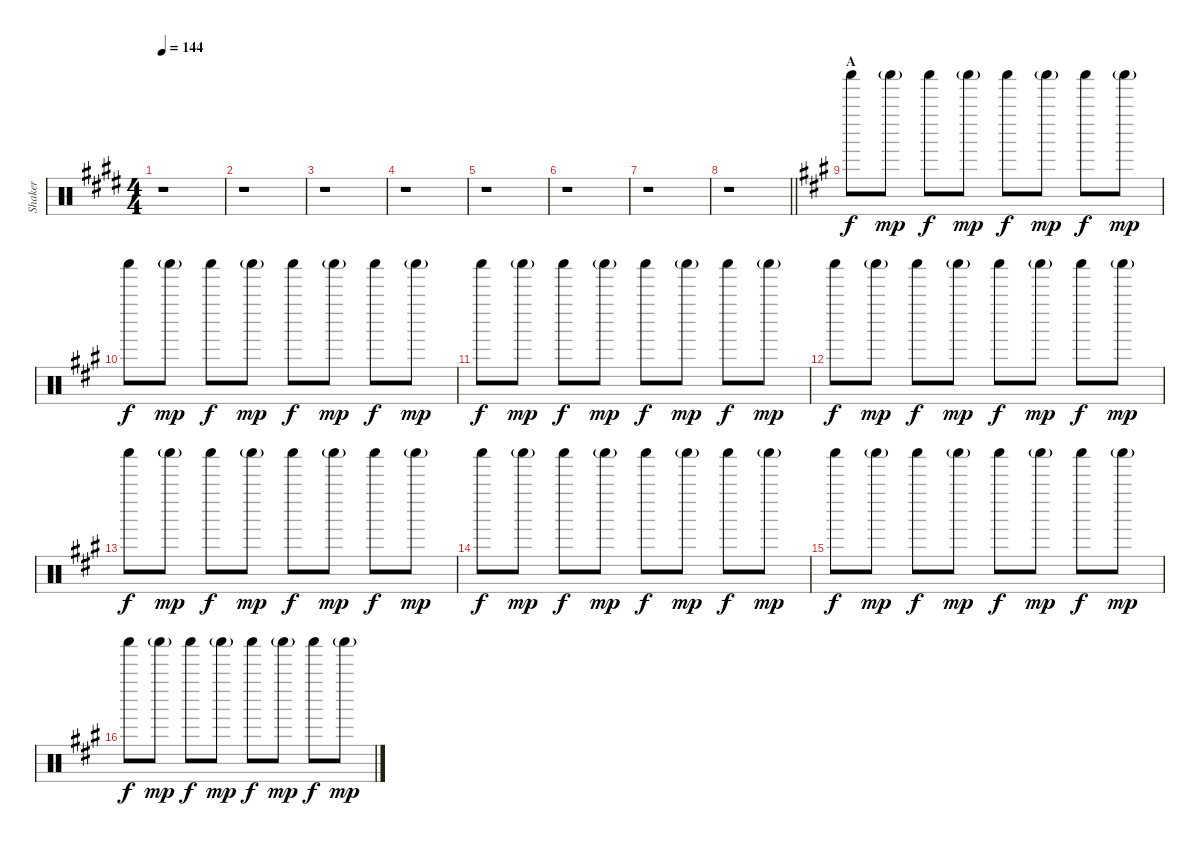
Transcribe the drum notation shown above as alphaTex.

\track ("Shaker" "Shaker") {instrument percussion}
\staff {score}
\articulation defaults
\ts (4 4)
\tempo 144
\clef neutral
\ks e
r.1{dy f} |
r.1 |
r.1 |
r.1 |
r.1 |
r.1 |
r.1 |
\barLineRight lightlight
r.1 |
\section ("" "A")
\ks a "Shaker (hit)".8 "Shaker (hit)"{g}.8{dy mp} "Shaker (hit)".8{dy f} "Shaker (hit)"{g}.8{dy mp} "Shaker (hit)".8{dy f} "Shaker (hit)"{g}.8{dy mp} "Shaker (hit)".8{dy f} "Shaker (hit)"{g}.8{dy mp}
|
"Shaker (hit)".8{dy f} "Shaker (hit)"{g}.8{dy mp} "Shaker (hit)".8{dy f} "Shaker (hit)"{g}.8{dy mp} "Shaker (hit)".8{dy f} "Shaker (hit)"{g}.8{dy mp} "Shaker (hit)".8{dy f} "Shaker (hit)"{g}.8{dy mp} |
"Shaker (hit)".8{dy f} "Shaker (hit)"{g}.8{dy mp} "Shaker (hit)".8{dy f} "Shaker (hit)"{g}.8{dy mp} "Shaker (hit)".8{dy f} "Shaker (hit)"{g}.8{dy mp} "Shaker (hit)".8{dy f} "Shaker (hit)"{g}.8{dy mp} |
"Shaker (hit)".8{dy f} "Shaker (hit)"{g}.8{dy mp} "Shaker (hit)".8{dy f} "Shaker (hit)"{g}.8{dy mp} "Shaker (hit)".8{dy f} "Shaker (hit)"{g}.8{dy mp} "Shaker (hit)".8{dy f} "Shaker (hit)"{g}.8{dy mp} |
"Shaker (hit)".8{dy f} "Shaker (hit)"{g}.8{dy mp} "Shaker (hit)".8{dy f} "Shaker (hit)"{g}.8{dy mp} "Shaker (hit)".8{dy f} "Shaker (hit)"{g}.8{dy mp} "Shaker (hit)".8{dy f} "Shaker (hit)"{g}.8{dy mp} |
"Shaker (hit)".8{dy f} "Shaker (hit)"{g}.8{dy mp} "Shaker (hit)".8{dy f} "Shaker (hit)"{g}.8{dy mp} "Shaker (hit)".8{dy f} "Shaker (hit)"{g}.8{dy mp} "Shaker (hit)".8{dy f} "Shaker (hit)"{g}.8{dy mp} |
"Shaker (hit)".8{dy f} "Shaker (hit)"{g}.8{dy mp} "Shaker (hit)".8{dy f} "Shaker (hit)"{g}.8{dy mp} "Shaker (hit)".8{dy f} "Shaker (hit)"{g}.8{dy mp} "Shaker (hit)".8{dy f} "Shaker (hit)"{g}.8{dy mp} |
"Shaker (hit)".8{dy f} "Shaker (hit)"{g}.8{dy mp} "Shaker (hit)".8{dy f} "Shaker (hit)"{g}.8{dy mp} "Shaker (hit)".8{dy f} "Shaker (hit)"{g}.8{dy mp} "Shaker (hit)".8{dy f} "Shaker (hit)"{g}.8{dy mp}
